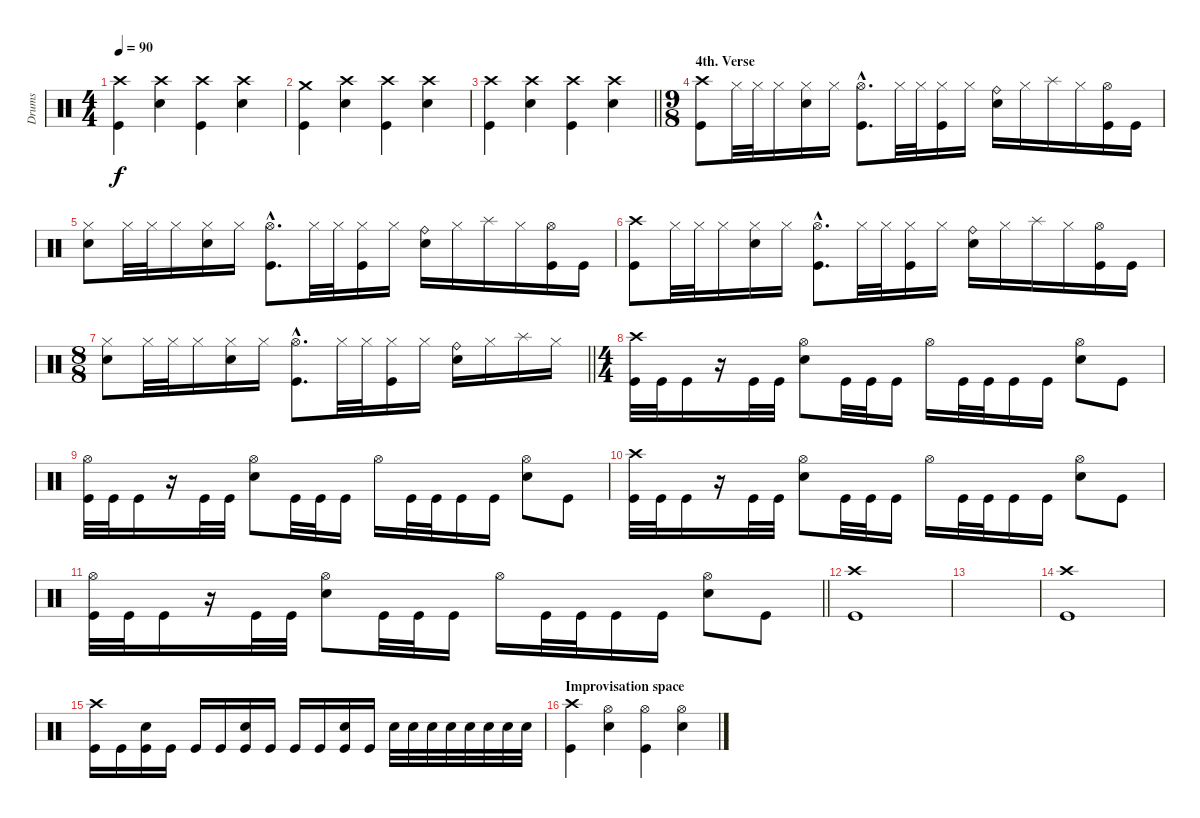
\track ("Drums" "Drums") {instrument percussion}
\staff {score}
\articulation defaults
\ts (4 4)
\tempo 90
\clef neutral
\ks c
("Crash high (hit)" "Kick (hit)").4{dy f} ("Crash high (hit)" "Electric Snare (hit)").4 ("Crash high (hit)" "Kick (hit)").4 ("Crash high (hit)" "Electric Snare (hit)").4 |
("Crash medium (hit)" "Kick (hit)").4 ("Crash high (hit)" "Electric Snare (hit)").4 ("Crash high (hit)" "Kick (hit)").4 ("Crash high (hit)" "Electric Snare (hit)").4 |
\barLineRight lightlight
("Crash high (hit)" "Kick (hit)").4 ("Crash high (hit)" "Electric Snare (hit)").4 ("Crash high (hit)" "Kick (hit)").4 ("Crash high (hit)" "Electric Snare (hit)").4 |
\ts (9 8)
\section ("" "4th. Verse")
("Crash high (hit)" "Kick (hit)").8 "Hi-Hat (closed)".32 "Hi-Hat (closed)".32 "Hi-Hat (closed)".16 ("Hi-Hat (closed)" "Electric Snare (hit)").16 "Hi-Hat (closed)".16 ("Hi-Hat (open)"{hac} "Kick (hit)"{hac}).8{d} "Hi-Hat (closed)".32 "Hi-Hat (closed)".32 ("Hi-Hat (closed)" "Kick (hit)").16 "Hi-Hat (closed)".16 ("Ride (bell)" "Electric Snare (hit)").16 "Hi-Hat (closed)".16 "Splash (hit)".16 "Hi-Hat (closed)".16 ("Hi-Hat (open)" "Kick (hit)").16 "Kick (hit)".16 |
("Hi-Hat (closed)" "Electric Snare (hit)").8 "Hi-Hat (closed)".32 "Hi-Hat (closed)".32 "Hi-Hat (closed)".16 ("Hi-Hat (closed)" "Electric Snare (hit)").16 "Hi-Hat (closed)".16 ("Hi-Hat (open)"{hac} "Kick (hit)"{hac}).8{d} "Hi-Hat (closed)".32 "Hi-Hat (closed)".32 ("Hi-Hat (closed)" "Kick (hit)").16 "Hi-Hat (closed)".16 ("Ride (bell)" "Electric Snare (hit)").16 "Hi-Hat (closed)".16 "Splash (hit)".16 "Hi-Hat (closed)".16 ("Hi-Hat (open)" "Kick (hit)").16 "Kick (hit)".16 |
("Crash high (hit)" "Kick (hit)").8 "Hi-Hat (closed)".32 "Hi-Hat (closed)".32 "Hi-Hat (closed)".16 ("Hi-Hat (closed)" "Electric Snare (hit)").16 "Hi-Hat (closed)".16 ("Hi-Hat (open)"{hac} "Kick (hit)"{hac}).8{d} "Hi-Hat (closed)".32 "Hi-Hat (closed)".32 ("Hi-Hat (closed)" "Kick (hit)").16 "Hi-Hat (closed)".16 ("Ride (bell)" "Electric Snare (hit)").16 "Hi-Hat (closed)".16 "Splash (hit)".16 "Hi-Hat (closed)".16 ("Hi-Hat (open)" "Kick (hit)").16 "Kick (hit)".16 |
\ts (8 8)
\barLineRight lightlight
("Hi-Hat (closed)" "Electric Snare (hit)").8 "Hi-Hat (closed)".32 "Hi-Hat (closed)".32 "Hi-Hat (closed)".16 ("Hi-Hat (closed)" "Electric Snare (hit)").16 "Hi-Hat (closed)".16 ("Hi-Hat (open)"{hac} "Kick (hit)"{hac}).8{d} "Hi-Hat (closed)".32 "Hi-Hat (closed)".32 ("Hi-Hat (closed)" "Kick (hit)").16 "Hi-Hat (closed)".16 ("Ride (bell)" "Electric Snare (hit)").16 "Hi-Hat (closed)".16 "Splash (hit)".16 "Hi-Hat (closed)".16 |
\ts (4 4)
("Crash high (hit)" "Kick (hit)").32 "Kick (hit)".32 "Kick (hit)".16 r.16 "Kick (hit)".32 "Kick (hit)".32 ("Hi-Hat (open)" "Electric Snare (hit)").8 "Kick (hit)".32 "Kick (hit)".32 "Kick (hit)".16 "Hi-Hat (open)".16 "Kick (hit)".32 "Kick (hit)".32 "Kick (hit)".16 "Kick (hit)".16 ("Hi-Hat (open)" "Electric Snare (hit)").8 "Kick (hit)".8 |
("Hi-Hat (open)" "Kick (hit)").32 "Kick (hit)".32 "Kick (hit)".16 r.16 "Kick (hit)".32 "Kick (hit)".32 ("Hi-Hat (open)" "Electric Snare (hit)").8 "Kick (hit)".32 "Kick (hit)".32 "Kick (hit)".16 "Hi-Hat (open)".16 "Kick (hit)".32 "Kick (hit)".32 "Kick (hit)".16 "Kick (hit)".16 ("Hi-Hat (open)" "Electric Snare (hit)").8 "Kick (hit)".8 |
("Crash high (hit)" "Kick (hit)").32 "Kick (hit)".32 "Kick (hit)".16 r.16 "Kick (hit)".32 "Kick (hit)".32 ("Hi-Hat (open)" "Electric Snare (hit)").8 "Kick (hit)".32 "Kick (hit)".32 "Kick (hit)".16 "Hi-Hat (open)".16 "Kick (hit)".32 "Kick (hit)".32 "Kick (hit)".16 "Kick (hit)".16 ("Hi-Hat (open)" "Electric Snare (hit)").8 "Kick (hit)".8 |
\barLineRight lightlight
("Hi-Hat (open)" "Kick (hit)").32 "Kick (hit)".32 "Kick (hit)".16 r.16 "Kick (hit)".32 "Kick (hit)".32 ("Hi-Hat (open)" "Electric Snare (hit)").8 "Kick (hit)".32 "Kick (hit)".32 "Kick (hit)".16 "Hi-Hat (open)".16 "Kick (hit)".32 "Kick (hit)".32 "Kick (hit)".16 "Kick (hit)".16 ("Hi-Hat (open)" "Electric Snare (hit)").8 "Kick (hit)".8 |
("Crash high (hit)" "Kick (hit)").1 |
|
("Crash high (hit)" "Kick (hit)").1 |
("Crash high (hit)" "Kick (hit)").16 "Kick (hit)".16 ("Electric Snare (hit)" "Kick (hit)").16 "Kick (hit)".16 "Kick (hit)".16 "Kick (hit)".16 ("Electric Snare (hit)" "Kick (hit)").16 "Kick (hit)".16 "Kick (hit)".16 "Kick (hit)".16 ("Electric Snare (hit)" "Kick (hit)").16 "Kick (hit)".16 "Electric Snare (hit)".32 "Electric Snare (hit)".32 "Electric Snare (hit)".32 "Electric Snare (hit)".32 "Electric Snare (hit)".32 "Electric Snare (hit)".32 "Electric Snare (hit)".32 "Electric Snare (hit)".32 |
\section ("" "Improvisation space")
("Crash high (hit)" "Kick (hit)").4 ("Hi-Hat (open)" "Electric Snare (hit)").4 ("Hi-Hat (open)" "Kick (hit)").4 ("Hi-Hat (open)" "Electric Snare (hit)").4
